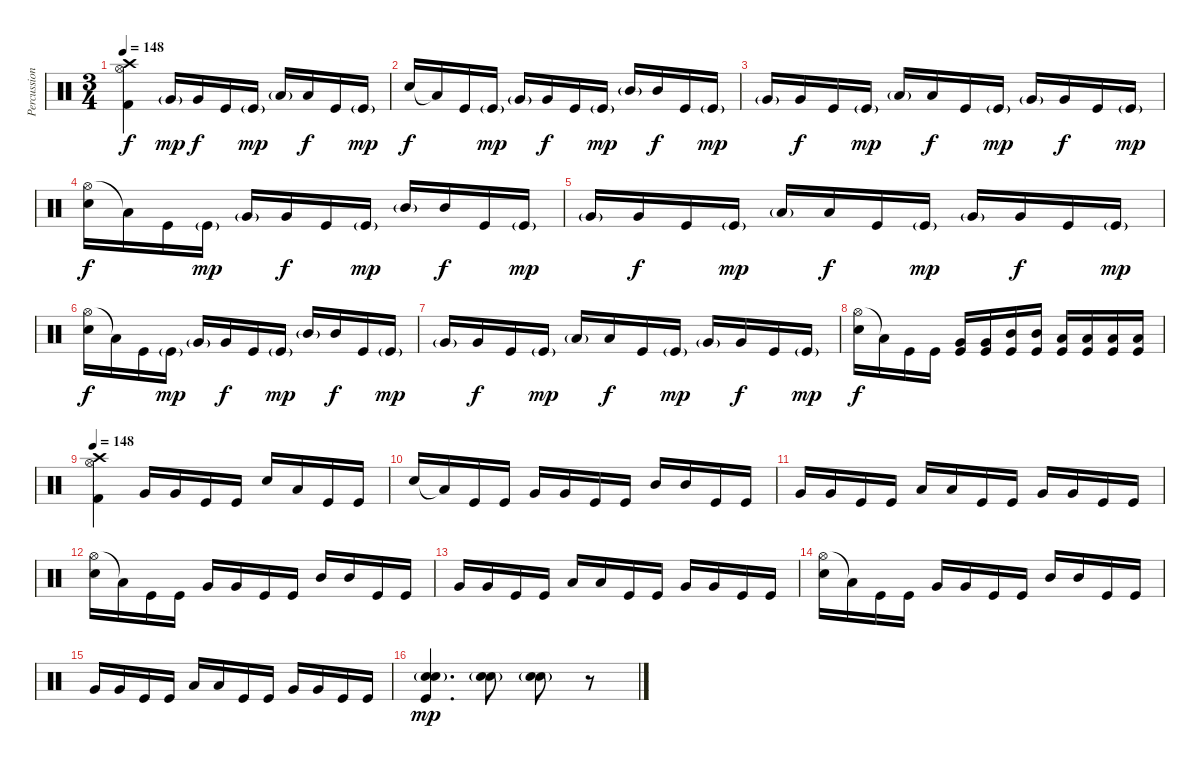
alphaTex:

\track ("Percussion" "Percussion") {instrument percussion}
\staff {score}
\articulation defaults
\ts (3 4)
\tempo 148
\clef neutral
\ks c
("Crash high (hit)" "Hi-Hat (open)" "Kick (hit) 2").4{dy f volume 6} "Very Low Tom (hit)"{g}.16{dy mp} "Very Low Tom (hit)".16{dy f} "Kick (hit)".16 "Kick (hit)"{g}.16{dy mp} "Low Tom (hit)"{g}.16 "Low Tom (hit)".16{dy f} "Kick (hit)".16 "Kick (hit)"{g}.16{dy mp} |
"Electric Snare (hit)".16{dy f} "Low Tom (hit)"{t}.16 "Kick (hit)".16 "Kick (hit)"{g}.16{dy mp} "Very Low Tom (hit)"{g}.16 "Very Low Tom (hit)".16{dy f} "Kick (hit)".16 "Kick (hit)"{g}.16{dy mp} "Mid Tom (hit)"{g}.16 "Mid Tom (hit)".16{dy f} "Kick (hit)".16 "Kick (hit)"{g}.16{dy mp} |
"Very Low Tom (hit)"{g}.16 "Very Low Tom (hit)".16{dy f} "Kick (hit)".16 "Kick (hit)"{g}.16{dy mp} "Low Tom (hit)"{g}.16 "Low Tom (hit)".16{dy f} "Kick (hit)".16 "Kick (hit)"{g}.16{dy mp} "Very Low Tom (hit)"{g}.16 "Very Low Tom (hit)".16{dy f} "Kick (hit)".16 "Kick (hit)"{g}.16{dy mp} |
("Hi-Hat (open)" "Electric Snare (hit)").16{dy f} "Low Tom (hit)"{t}.16 "Kick (hit)".16 "Kick (hit)"{g}.16{dy mp} "Very Low Tom (hit)"{g}.16 "Very Low Tom (hit)".16{dy f} "Kick (hit)".16 "Kick (hit)"{g}.16{dy mp} "Mid Tom (hit)"{g}.16 "Mid Tom (hit)".16{dy f} "Kick (hit)".16 "Kick (hit)"{g}.16{dy mp} |
"Very Low Tom (hit)"{g}.16 "Very Low Tom (hit)".16{dy f} "Kick (hit)".16 "Kick (hit)"{g}.16{dy mp} "Low Tom (hit)"{g}.16 "Low Tom (hit)".16{dy f} "Kick (hit)".16 "Kick (hit)"{g}.16{dy mp} "Very Low Tom (hit)"{g}.16 "Very Low Tom (hit)".16{dy f} "Kick (hit)".16 "Kick (hit)"{g}.16{dy mp} |
("Hi-Hat (open)" "Electric Snare (hit)").16{dy f} "Low Tom (hit)"{t}.16 "Kick (hit)".16 "Kick (hit)"{g}.16{dy mp} "Very Low Tom (hit)"{g}.16 "Very Low Tom (hit)".16{dy f} "Kick (hit)".16 "Kick (hit)"{g}.16{dy mp} "Mid Tom (hit)"{g}.16 "Mid Tom (hit)".16{dy f} "Kick (hit)".16 "Kick (hit)"{g}.16{dy mp} |
"Very Low Tom (hit)"{g}.16 "Very Low Tom (hit)".16{dy f} "Kick (hit)".16 "Kick (hit)"{g}.16{dy mp} "Low Tom (hit)"{g}.16 "Low Tom (hit)".16{dy f} "Kick (hit)".16 "Kick (hit)"{g}.16{dy mp} "Very Low Tom (hit)"{g}.16 "Very Low Tom (hit)".16{dy f} "Kick (hit)".16 "Kick (hit)"{g}.16{dy mp} |
("Hi-Hat (open)" "Electric Snare (hit)").16{dy f} "Low Tom (hit)"{t}.16 "Kick (hit)".16 "Kick (hit)".16 ("Very Low Tom (hit)" "Kick (hit)").16 ("Very Low Tom (hit)" "Kick (hit)").16 ("Mid Tom (hit)" "Kick (hit)").16 ("Mid Tom (hit)" "Kick (hit)").16 ("Low Tom (hit)" "Kick (hit)").16 ("Low Tom (hit)" "Kick (hit)").16 ("Low Floor Tom (hit)" "Kick (hit)").16 ("Low Floor Tom (hit)" "Kick (hit)").16 |
\tempo 148
("Crash high (hit)" "Hi-Hat (open)" "Kick (hit) 2").4 "Very Low Tom (hit)".16 "Very Low Tom (hit)".16 "Kick (hit)".16 "Kick (hit)".16 "Electric Snare (hit)".16 "Low Tom (hit)".16 "Kick (hit)".16 "Kick (hit)".16 |
"Electric Snare (hit)".16 "Low Tom (hit)"{t}.16 "Kick (hit)".16 "Kick (hit)".16 "Very Low Tom (hit)".16 "Very Low Tom (hit)".16 "Kick (hit)".16 "Kick (hit)".16 "Mid Tom (hit)".16 "Mid Tom (hit)".16 "Kick (hit)".16 "Kick (hit)".16 |
"Very Low Tom (hit)".16 "Very Low Tom (hit)".16 "Kick (hit)".16 "Kick (hit)".16 "Low Tom (hit)".16 "Low Tom (hit)".16 "Kick (hit)".16 "Kick (hit)".16 "Very Low Tom (hit)".16 "Very Low Tom (hit)".16 "Kick (hit)".16 "Kick (hit)".16 |
("Hi-Hat (open)" "Electric Snare (hit)").16 "Low Tom (hit)"{t}.16 "Kick (hit)".16 "Kick (hit)".16 "Very Low Tom (hit)".16 "Very Low Tom (hit)".16 "Kick (hit)".16 "Kick (hit)".16 "Mid Tom (hit)".16 "Mid Tom (hit)".16 "Kick (hit)".16 "Kick (hit)".16 |
"Very Low Tom (hit)".16 "Very Low Tom (hit)".16 "Kick (hit)".16 "Kick (hit)".16 "Low Tom (hit)".16 "Low Tom (hit)".16 "Kick (hit)".16 "Kick (hit)".16 "Very Low Tom (hit)".16 "Very Low Tom (hit)".16 "Kick (hit)".16 "Kick (hit)".16 |
("Hi-Hat (open)" "Electric Snare (hit)").16 "Low Tom (hit)"{t}.16 "Kick (hit)".16 "Kick (hit)".16 "Very Low Tom (hit)".16 "Very Low Tom (hit)".16 "Kick (hit)".16 "Kick (hit)".16 "Mid Tom (hit)".16 "Mid Tom (hit)".16 "Kick (hit)".16 "Kick (hit)".16 |
"Very Low Tom (hit)".16 "Very Low Tom (hit)".16 "Kick (hit)".16 "Kick (hit)".16 "Low Tom (hit)".16 "Low Tom (hit)".16 "Kick (hit)".16 "Kick (hit)".16 "Very Low Tom (hit)".16 "Very Low Tom (hit)".16 "Kick (hit)".16 "Kick (hit)".16 |
("Snare (hit) 2" "Electric Snare (hit)"{g} "Kick (hit)").4{d dy mp volume 11} ("Snare (hit) 2" "Electric Snare (hit)"{g}).8 ("Snare (hit) 2" "Electric Snare (hit)"{g}).8 r.8
